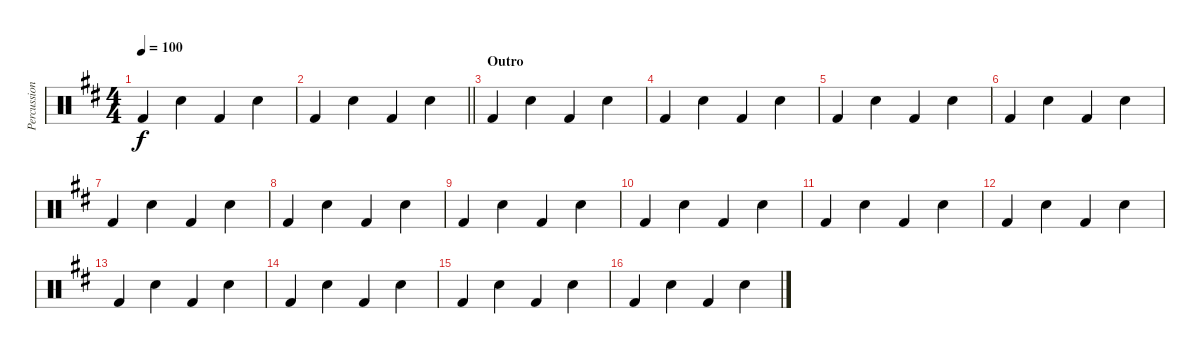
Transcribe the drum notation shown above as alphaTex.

\track ("Percussion" "Percussion") {instrument percussion}
\staff {score}
\articulation defaults
\ts (4 4)
\tempo 100
\clef neutral
\ks d "Kick (hit) 2".4{dy f} "Electric Snare (hit)".4 "Kick (hit) 2".4 "Electric Snare (hit)".4
|
\barLineRight lightlight "Kick (hit) 2".4 "Electric Snare (hit)".4 "Kick (hit) 2".4 "Electric Snare (hit)".4
|
\section ("" "Outro")
"Kick (hit) 2".4 "Electric Snare (hit)".4 "Kick (hit) 2".4 "Electric Snare (hit)".4 |
"Kick (hit) 2".4 "Electric Snare (hit)".4 "Kick (hit) 2".4 "Electric Snare (hit)".4 |
"Kick (hit) 2".4 "Electric Snare (hit)".4 "Kick (hit) 2".4 "Electric Snare (hit)".4 |
"Kick (hit) 2".4 "Electric Snare (hit)".4 "Kick (hit) 2".4 "Electric Snare (hit)".4 |
"Kick (hit) 2".4 "Electric Snare (hit)".4 "Kick (hit) 2".4 "Electric Snare (hit)".4 |
"Kick (hit) 2".4 "Electric Snare (hit)".4 "Kick (hit) 2".4 "Electric Snare (hit)".4 |
"Kick (hit) 2".4 "Electric Snare (hit)".4 "Kick (hit) 2".4 "Electric Snare (hit)".4 |
"Kick (hit) 2".4 "Electric Snare (hit)".4 "Kick (hit) 2".4 "Electric Snare (hit)".4 |
"Kick (hit) 2".4 "Electric Snare (hit)".4 "Kick (hit) 2".4 "Electric Snare (hit)".4 |
"Kick (hit) 2".4 "Electric Snare (hit)".4 "Kick (hit) 2".4 "Electric Snare (hit)".4 |
"Kick (hit) 2".4 "Electric Snare (hit)".4 "Kick (hit) 2".4 "Electric Snare (hit)".4 |
"Kick (hit) 2".4 "Electric Snare (hit)".4 "Kick (hit) 2".4 "Electric Snare (hit)".4 |
"Kick (hit) 2".4 "Electric Snare (hit)".4 "Kick (hit) 2".4 "Electric Snare (hit)".4 |
"Kick (hit) 2".4 "Electric Snare (hit)".4 "Kick (hit) 2".4 "Electric Snare (hit)".4
